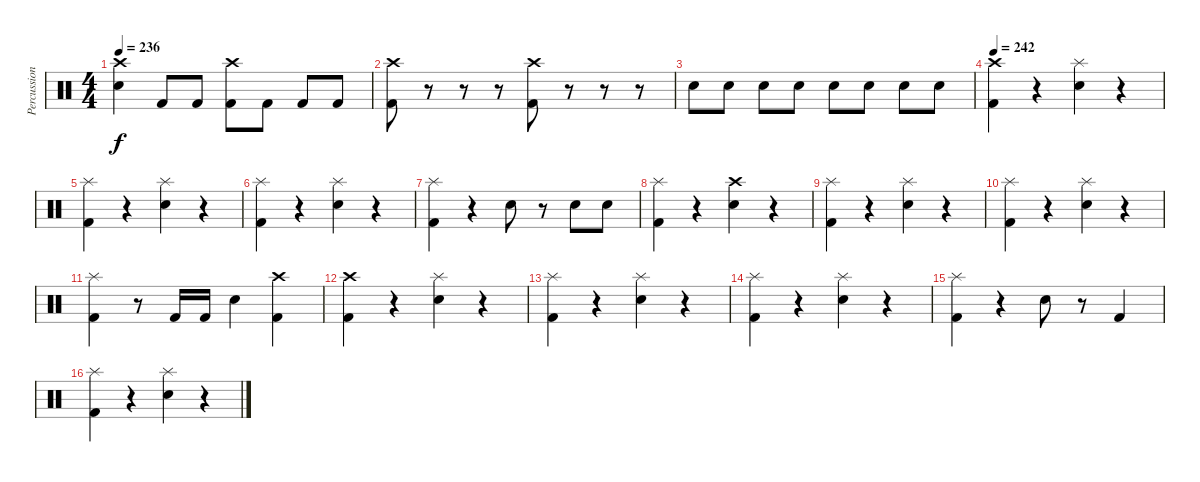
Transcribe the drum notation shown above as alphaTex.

\track ("Percussion" "Percussion") {instrument percussion}
\staff {score}
\articulation defaults
\ts (4 4)
\tempo 236
\clef neutral
\ks c
("Crash high (hit)" "Electric Snare (hit)").4{dy f} "Kick (hit) 2".8 "Kick (hit) 2".8 ("Crash high (hit)" "Kick (hit) 2").8 "Kick (hit) 2".8 "Kick (hit) 2".8 "Kick (hit) 2".8 |
("Crash high (hit)" "Kick (hit) 2").8 r.8 r.8 r.8 ("Crash high (hit)" "Kick (hit) 2").8 r.8 r.8 r.8 |
"Electric Snare (hit)".8 "Electric Snare (hit)".8 "Electric Snare (hit)".8 "Electric Snare (hit)".8 "Electric Snare (hit)".8 "Electric Snare (hit)".8 "Electric Snare (hit)".8 "Electric Snare (hit)".8 |
\tempo 242
("Crash high (hit)" "Kick (hit) 2").4 r.4 ("Splash (hit)" "Electric Snare (hit)").4 r.4 |
("Splash (hit)" "Kick (hit) 2").4 r.4 ("Splash (hit)" "Electric Snare (hit)").4 r.4 |
("Splash (hit)" "Kick (hit) 2").4 r.4 ("Splash (hit)" "Electric Snare (hit)").4 r.4 |
("Splash (hit)" "Kick (hit) 2").4 r.4 "Electric Snare (hit)".8 r.8 "Electric Snare (hit)".8 "Electric Snare (hit)".8 |
("Splash (hit)" "Kick (hit) 2").4 r.4 ("Crash high (hit)" "Electric Snare (hit)").4 r.4 |
("Splash (hit)" "Kick (hit) 2").4 r.4 ("Splash (hit)" "Electric Snare (hit)").4 r.4 |
("Splash (hit)" "Kick (hit) 2").4 r.4 ("Splash (hit)" "Electric Snare (hit)").4 r.4 |
("Splash (hit)" "Kick (hit) 2").4 r.8 "Kick (hit) 2".16 "Kick (hit) 2".16 "Electric Snare (hit)".4 ("Crash high (hit)" "Kick (hit) 2").4 |
("Crash high (hit)" "Kick (hit) 2").4 r.4 ("Splash (hit)" "Electric Snare (hit)").4 r.4 |
("Splash (hit)" "Kick (hit) 2").4 r.4 ("Splash (hit)" "Electric Snare (hit)").4 r.4 |
("Splash (hit)" "Kick (hit) 2").4 r.4 ("Splash (hit)" "Electric Snare (hit)").4 r.4 |
("Splash (hit)" "Kick (hit) 2").4 r.4 "Electric Snare (hit)".8 r.8 "Kick (hit) 2".4 |
("Splash (hit)" "Kick (hit) 2").4 r.4 ("Splash (hit)" "Electric Snare (hit)").4 r.4
